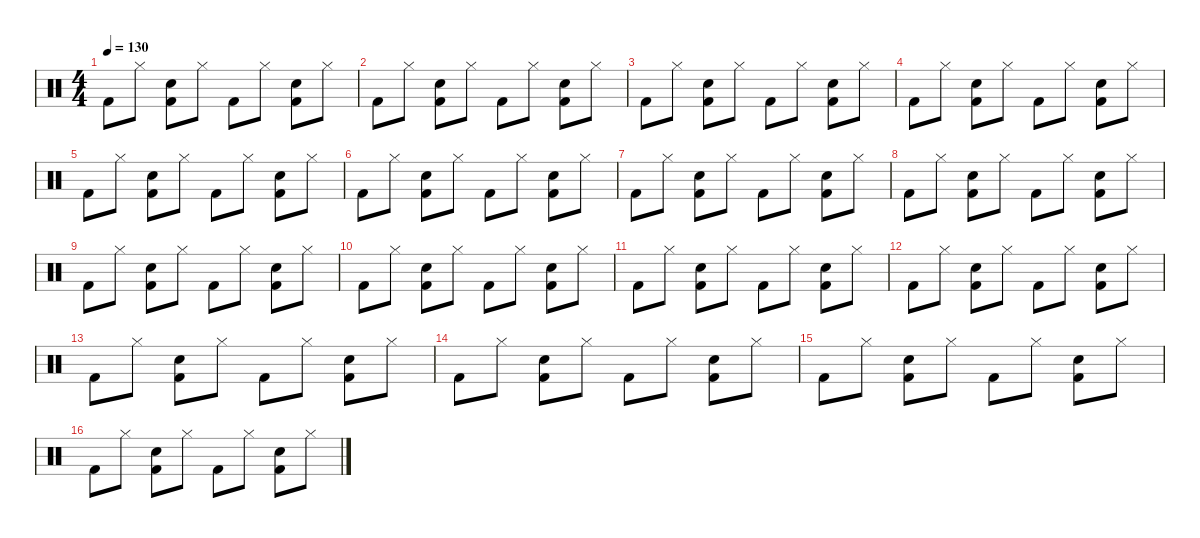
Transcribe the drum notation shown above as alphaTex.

\defaultSystemsLayout 4
\hideDynamics
\bracketExtendMode nobrackets
\singleTrackTrackNamePolicy hidden
\multiTrackTrackNamePolicy hidden
\otherSystemsTrackNameOrientation horizontal
\track ("Percussion" "drm.") {defaultSystemsLayout 4 instrument percussion}
\staff {score}
\articulation defaults
\ts (4 4)
\tempo 130
\clef neutral
\ks c "Kick (hit) 2".8{dy f beam Down} "Hi-Hat (closed)".8{beam Down}
("Snare (hit) 2" "Kick (hit) 2").8{beam Down} "Hi-Hat (closed)".8{beam Down} "Kick (hit) 2".8{beam Down} "Hi-Hat (closed)".8{beam Down} ("Snare (hit) 2" "Kick (hit) 2").8{beam Down} "Hi-Hat (closed)".8{beam Down} |
"Kick (hit) 2".8{beam Down} "Hi-Hat (closed)".8{beam Down} ("Snare (hit) 2" "Kick (hit) 2").8{beam Down} "Hi-Hat (closed)".8{beam Down} "Kick (hit) 2".8{beam Down} "Hi-Hat (closed)".8{beam Down} ("Snare (hit) 2" "Kick (hit) 2").8{beam Down} "Hi-Hat (closed)".8{beam Down} |
"Kick (hit) 2".8{beam Down} "Hi-Hat (closed)".8{beam Down} ("Snare (hit) 2" "Kick (hit) 2").8{beam Down} "Hi-Hat (closed)".8{beam Down} "Kick (hit) 2".8{beam Down} "Hi-Hat (closed)".8{beam Down} ("Snare (hit) 2" "Kick (hit) 2").8{beam Down} "Hi-Hat (closed)".8{beam Down} |
"Kick (hit) 2".8{beam Down} "Hi-Hat (closed)".8{beam Down} ("Snare (hit) 2" "Kick (hit) 2").8{beam Down} "Hi-Hat (closed)".8{beam Down} "Kick (hit) 2".8{beam Down} "Hi-Hat (closed)".8{beam Down} ("Snare (hit) 2" "Kick (hit) 2").8{beam Down} "Hi-Hat (closed)".8{beam Down} |
"Kick (hit) 2".8{beam Down} "Hi-Hat (closed)".8{beam Down} ("Snare (hit) 2" "Kick (hit) 2").8{beam Down} "Hi-Hat (closed)".8{beam Down} "Kick (hit) 2".8{beam Down} "Hi-Hat (closed)".8{beam Down} ("Snare (hit) 2" "Kick (hit) 2").8{beam Down} "Hi-Hat (closed)".8{beam Down} |
"Kick (hit) 2".8{beam Down} "Hi-Hat (closed)".8{beam Down} ("Snare (hit) 2" "Kick (hit) 2").8{beam Down} "Hi-Hat (closed)".8{beam Down} "Kick (hit) 2".8{beam Down} "Hi-Hat (closed)".8{beam Down} ("Snare (hit) 2" "Kick (hit) 2").8{beam Down} "Hi-Hat (closed)".8{beam Down} |
"Kick (hit) 2".8{beam Down} "Hi-Hat (closed)".8{beam Down} ("Snare (hit) 2" "Kick (hit) 2").8{beam Down} "Hi-Hat (closed)".8{beam Down} "Kick (hit) 2".8{beam Down} "Hi-Hat (closed)".8{beam Down} ("Snare (hit) 2" "Kick (hit) 2").8{beam Down} "Hi-Hat (closed)".8{beam Down} |
"Kick (hit) 2".8{beam Down} "Hi-Hat (closed)".8{beam Down} ("Snare (hit) 2" "Kick (hit) 2").8{beam Down} "Hi-Hat (closed)".8{beam Down} "Kick (hit) 2".8{beam Down} "Hi-Hat (closed)".8{beam Down} ("Snare (hit) 2" "Kick (hit) 2").8{beam Down} "Hi-Hat (closed)".8{beam Down} |
"Kick (hit) 2".8{beam Down} "Hi-Hat (closed)".8{beam Down} ("Snare (hit) 2" "Kick (hit) 2").8{beam Down} "Hi-Hat (closed)".8{beam Down} "Kick (hit) 2".8{beam Down} "Hi-Hat (closed)".8{beam Down} ("Snare (hit) 2" "Kick (hit) 2").8{beam Down} "Hi-Hat (closed)".8{beam Down} |
"Kick (hit) 2".8{beam Down} "Hi-Hat (closed)".8{beam Down} ("Snare (hit) 2" "Kick (hit) 2").8{beam Down} "Hi-Hat (closed)".8{beam Down} "Kick (hit) 2".8{beam Down} "Hi-Hat (closed)".8{beam Down} ("Snare (hit) 2" "Kick (hit) 2").8{beam Down} "Hi-Hat (closed)".8{beam Down} |
"Kick (hit) 2".8{beam Down} "Hi-Hat (closed)".8{beam Down} ("Snare (hit) 2" "Kick (hit) 2").8{beam Down} "Hi-Hat (closed)".8{beam Down} "Kick (hit) 2".8{beam Down} "Hi-Hat (closed)".8{beam Down} ("Snare (hit) 2" "Kick (hit) 2").8{beam Down} "Hi-Hat (closed)".8{beam Down} |
"Kick (hit) 2".8{beam Down} "Hi-Hat (closed)".8{beam Down} ("Snare (hit) 2" "Kick (hit) 2").8{beam Down} "Hi-Hat (closed)".8{beam Down} "Kick (hit) 2".8{beam Down} "Hi-Hat (closed)".8{beam Down} ("Snare (hit) 2" "Kick (hit) 2").8{beam Down} "Hi-Hat (closed)".8{beam Down} |
"Kick (hit) 2".8{beam Down} "Hi-Hat (closed)".8{beam Down} ("Snare (hit) 2" "Kick (hit) 2").8{beam Down} "Hi-Hat (closed)".8{beam Down} "Kick (hit) 2".8{beam Down} "Hi-Hat (closed)".8{beam Down} ("Snare (hit) 2" "Kick (hit) 2").8{beam Down} "Hi-Hat (closed)".8{beam Down} |
"Kick (hit) 2".8{beam Down} "Hi-Hat (closed)".8{beam Down} ("Snare (hit) 2" "Kick (hit) 2").8{beam Down} "Hi-Hat (closed)".8{beam Down} "Kick (hit) 2".8{beam Down} "Hi-Hat (closed)".8{beam Down} ("Snare (hit) 2" "Kick (hit) 2").8{beam Down} "Hi-Hat (closed)".8{beam Down} |
"Kick (hit) 2".8{beam Down} "Hi-Hat (closed)".8{beam Down} ("Snare (hit) 2" "Kick (hit) 2").8{beam Down} "Hi-Hat (closed)".8{beam Down} "Kick (hit) 2".8{beam Down} "Hi-Hat (closed)".8{beam Down} ("Snare (hit) 2" "Kick (hit) 2").8{beam Down} "Hi-Hat (closed)".8{beam Down} |
"Kick (hit) 2".8{beam Down} "Hi-Hat (closed)".8{beam Down} ("Snare (hit) 2" "Kick (hit) 2").8{beam Down} "Hi-Hat (closed)".8{beam Down} "Kick (hit) 2".8{beam Down} "Hi-Hat (closed)".8{beam Down} ("Snare (hit) 2" "Kick (hit) 2").8{beam Down} "Hi-Hat (closed)".8{beam Down}
